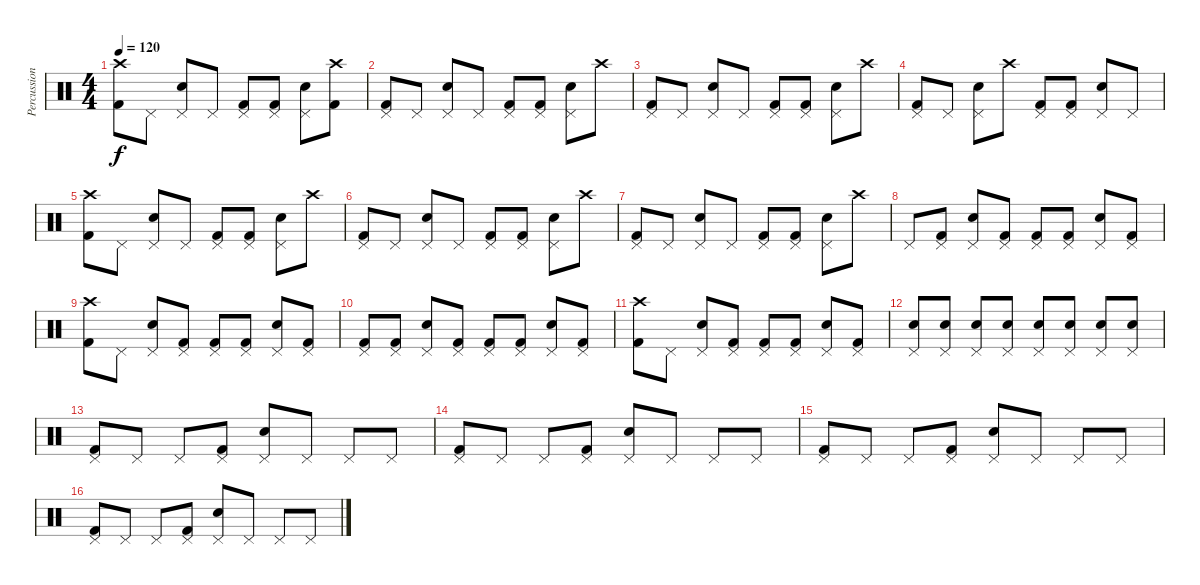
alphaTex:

\track ("Percussion" "Percussion") {instrument percussion}
\staff {score}
\articulation defaults
\ts (4 4)
\tempo 120
\clef neutral
\ks c
("Crash high (hit)" "Kick (hit) 2").8{dy f} "Pedal Hi-Hat (hit)".8 ("Pedal Hi-Hat (hit)" "Electric Snare (hit)").8 "Pedal Hi-Hat (hit)".8 ("Pedal Hi-Hat (hit)" "Kick (hit) 2").8 ("Pedal Hi-Hat (hit)" "Kick (hit) 2").8 ("Pedal Hi-Hat (hit)" "Electric Snare (hit)").8 ("Crash high (hit)" "Kick (hit) 2").8 |
("Pedal Hi-Hat (hit)" "Kick (hit) 2").8 "Pedal Hi-Hat (hit)".8 ("Pedal Hi-Hat (hit)" "Electric Snare (hit)").8 "Pedal Hi-Hat (hit)".8 ("Pedal Hi-Hat (hit)" "Kick (hit) 2").8 ("Pedal Hi-Hat (hit)" "Kick (hit) 2").8 ("Pedal Hi-Hat (hit)" "Electric Snare (hit)").8 "Crash high (hit)".8 |
("Pedal Hi-Hat (hit)" "Kick (hit) 2").8 "Pedal Hi-Hat (hit)".8 ("Pedal Hi-Hat (hit)" "Electric Snare (hit)").8 "Pedal Hi-Hat (hit)".8 ("Pedal Hi-Hat (hit)" "Kick (hit) 2").8 ("Pedal Hi-Hat (hit)" "Kick (hit) 2").8 ("Pedal Hi-Hat (hit)" "Electric Snare (hit)").8 "Crash high (hit)".8 |
("Pedal Hi-Hat (hit)" "Kick (hit) 2").8 "Pedal Hi-Hat (hit)".8 ("Pedal Hi-Hat (hit)" "Electric Snare (hit)").8 "Crash high (hit)".8 ("Pedal Hi-Hat (hit)" "Kick (hit) 2").8 ("Pedal Hi-Hat (hit)" "Kick (hit) 2").8 ("Pedal Hi-Hat (hit)" "Electric Snare (hit)").8 "Pedal Hi-Hat (hit)".8 |
("Crash high (hit)" "Kick (hit) 2").8 "Pedal Hi-Hat (hit)".8 ("Pedal Hi-Hat (hit)" "Electric Snare (hit)").8 "Pedal Hi-Hat (hit)".8 ("Pedal Hi-Hat (hit)" "Kick (hit) 2").8 ("Pedal Hi-Hat (hit)" "Kick (hit) 2").8 ("Pedal Hi-Hat (hit)" "Electric Snare (hit)").8 "Crash high (hit)".8 |
("Pedal Hi-Hat (hit)" "Kick (hit) 2").8 "Pedal Hi-Hat (hit)".8 ("Pedal Hi-Hat (hit)" "Electric Snare (hit)").8 "Pedal Hi-Hat (hit)".8 ("Pedal Hi-Hat (hit)" "Kick (hit) 2").8 ("Pedal Hi-Hat (hit)" "Kick (hit) 2").8 ("Pedal Hi-Hat (hit)" "Electric Snare (hit)").8 "Crash high (hit)".8 |
("Pedal Hi-Hat (hit)" "Kick (hit) 2").8 "Pedal Hi-Hat (hit)".8 ("Pedal Hi-Hat (hit)" "Electric Snare (hit)").8 "Pedal Hi-Hat (hit)".8 ("Pedal Hi-Hat (hit)" "Kick (hit) 2").8 ("Pedal Hi-Hat (hit)" "Kick (hit) 2").8 ("Pedal Hi-Hat (hit)" "Electric Snare (hit)").8 "Crash high (hit)".8 |
"Pedal Hi-Hat (hit)".8 ("Pedal Hi-Hat (hit)" "Kick (hit) 2").8 ("Pedal Hi-Hat (hit)" "Electric Snare (hit)").8 ("Pedal Hi-Hat (hit)" "Kick (hit) 2").8 ("Pedal Hi-Hat (hit)" "Kick (hit) 2").8 ("Pedal Hi-Hat (hit)" "Kick (hit) 2").8 ("Pedal Hi-Hat (hit)" "Electric Snare (hit)").8 ("Pedal Hi-Hat (hit)" "Kick (hit) 2").8 |
("Crash high (hit)" "Kick (hit) 2").8 "Pedal Hi-Hat (hit)".8 ("Pedal Hi-Hat (hit)" "Electric Snare (hit)").8 ("Pedal Hi-Hat (hit)" "Kick (hit) 2").8 ("Pedal Hi-Hat (hit)" "Kick (hit) 2").8 ("Pedal Hi-Hat (hit)" "Kick (hit) 2").8 ("Pedal Hi-Hat (hit)" "Electric Snare (hit)").8 ("Pedal Hi-Hat (hit)" "Kick (hit) 2").8 |
("Pedal Hi-Hat (hit)" "Kick (hit) 2").8 ("Pedal Hi-Hat (hit)" "Kick (hit) 2").8 ("Pedal Hi-Hat (hit)" "Electric Snare (hit)").8 ("Pedal Hi-Hat (hit)" "Kick (hit) 2").8 ("Pedal Hi-Hat (hit)" "Kick (hit) 2").8 ("Pedal Hi-Hat (hit)" "Kick (hit) 2").8 ("Pedal Hi-Hat (hit)" "Electric Snare (hit)").8 ("Pedal Hi-Hat (hit)" "Kick (hit) 2").8 |
("Crash high (hit)" "Kick (hit) 2").8 "Pedal Hi-Hat (hit)".8 ("Pedal Hi-Hat (hit)" "Electric Snare (hit)").8 ("Pedal Hi-Hat (hit)" "Kick (hit) 2").8 ("Pedal Hi-Hat (hit)" "Kick (hit) 2").8 ("Pedal Hi-Hat (hit)" "Kick (hit) 2").8 ("Pedal Hi-Hat (hit)" "Electric Snare (hit)").8 ("Pedal Hi-Hat (hit)" "Kick (hit) 2").8 |
("Pedal Hi-Hat (hit)" "Electric Snare (hit)").8 ("Pedal Hi-Hat (hit)" "Electric Snare (hit)").8 ("Pedal Hi-Hat (hit)" "Electric Snare (hit)").8 ("Pedal Hi-Hat (hit)" "Electric Snare (hit)").8 ("Pedal Hi-Hat (hit)" "Electric Snare (hit)").8 ("Pedal Hi-Hat (hit)" "Electric Snare (hit)").8 ("Pedal Hi-Hat (hit)" "Electric Snare (hit)").8 ("Pedal Hi-Hat (hit)" "Electric Snare (hit)").8 |
("Pedal Hi-Hat (hit)" "Kick (hit) 2").8 "Pedal Hi-Hat (hit)".8 "Pedal Hi-Hat (hit)".8 ("Pedal Hi-Hat (hit)" "Kick (hit) 2").8 ("Pedal Hi-Hat (hit)" "Electric Snare (hit)").8 "Pedal Hi-Hat (hit)".8 "Pedal Hi-Hat (hit)".8 "Pedal Hi-Hat (hit)".8 |
("Pedal Hi-Hat (hit)" "Kick (hit) 2").8 "Pedal Hi-Hat (hit)".8 "Pedal Hi-Hat (hit)".8 ("Pedal Hi-Hat (hit)" "Kick (hit) 2").8 ("Pedal Hi-Hat (hit)" "Electric Snare (hit)").8 "Pedal Hi-Hat (hit)".8 "Pedal Hi-Hat (hit)".8 "Pedal Hi-Hat (hit)".8 |
("Pedal Hi-Hat (hit)" "Kick (hit) 2").8 "Pedal Hi-Hat (hit)".8 "Pedal Hi-Hat (hit)".8 ("Pedal Hi-Hat (hit)" "Kick (hit) 2").8 ("Pedal Hi-Hat (hit)" "Electric Snare (hit)").8 "Pedal Hi-Hat (hit)".8 "Pedal Hi-Hat (hit)".8 "Pedal Hi-Hat (hit)".8 |
("Pedal Hi-Hat (hit)" "Kick (hit) 2").8 "Pedal Hi-Hat (hit)".8 "Pedal Hi-Hat (hit)".8 ("Pedal Hi-Hat (hit)" "Kick (hit) 2").8 ("Pedal Hi-Hat (hit)" "Electric Snare (hit)").8 "Pedal Hi-Hat (hit)".8 "Pedal Hi-Hat (hit)".8 "Pedal Hi-Hat (hit)".8
